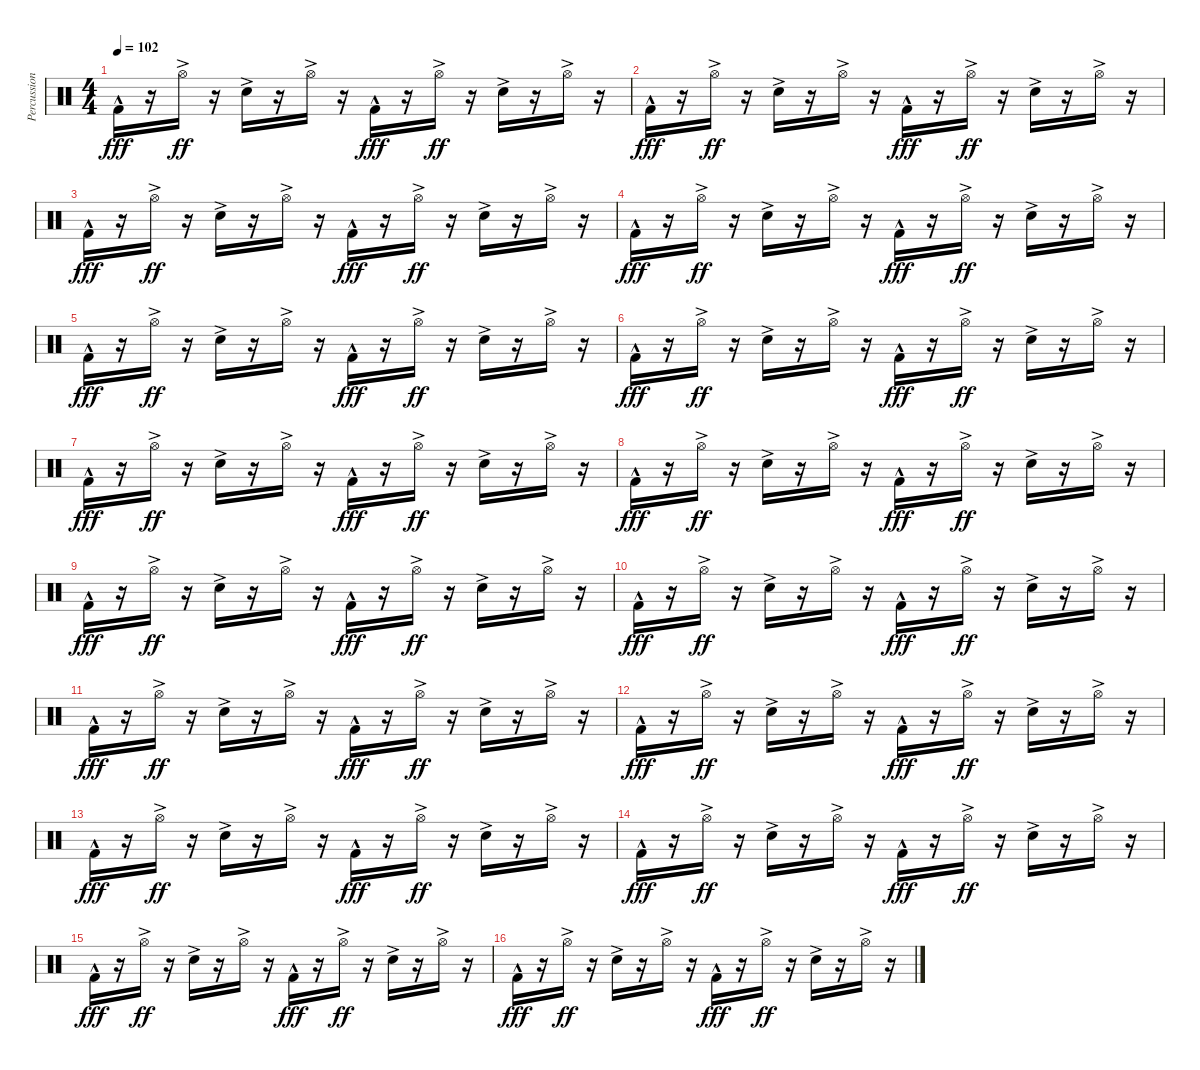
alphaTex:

\track ("Percussion" "Percussion") {instrument percussion}
\staff {score}
\articulation defaults
\ts (4 4)
\tempo 102
\clef neutral
\ks c "Kick (hit) 2"{hac}.16{dy fff}
r.16 "Hi-Hat (open)"{ac}.16{dy ff} r.16 "Snare (hit) 2"{ac}.16 r.16 "Hi-Hat (open)"{ac}.16 r.16 "Kick (hit) 2"{hac}.16{dy fff} r.16 "Hi-Hat (open)"{ac}.16{dy ff} r.16 "Snare (hit) 2"{ac}.16 r.16 "Hi-Hat (open)"{ac}.16 r.16 |
"Kick (hit) 2"{hac}.16{dy fff} r.16 "Hi-Hat (open)"{ac}.16{dy ff} r.16 "Snare (hit) 2"{ac}.16 r.16 "Hi-Hat (open)"{ac}.16 r.16 "Kick (hit) 2"{hac}.16{dy fff} r.16 "Hi-Hat (open)"{ac}.16{dy ff} r.16 "Snare (hit) 2"{ac}.16 r.16 "Hi-Hat (open)"{ac}.16 r.16 |
"Kick (hit) 2"{hac}.16{dy fff} r.16 "Hi-Hat (open)"{ac}.16{dy ff} r.16 "Snare (hit) 2"{ac}.16 r.16 "Hi-Hat (open)"{ac}.16 r.16 "Kick (hit) 2"{hac}.16{dy fff} r.16 "Hi-Hat (open)"{ac}.16{dy ff} r.16 "Snare (hit) 2"{ac}.16 r.16 "Hi-Hat (open)"{ac}.16 r.16 |
"Kick (hit) 2"{hac}.16{dy fff} r.16 "Hi-Hat (open)"{ac}.16{dy ff} r.16 "Snare (hit) 2"{ac}.16 r.16 "Hi-Hat (open)"{ac}.16 r.16 "Kick (hit) 2"{hac}.16{dy fff} r.16 "Hi-Hat (open)"{ac}.16{dy ff} r.16 "Snare (hit) 2"{ac}.16 r.16 "Hi-Hat (open)"{ac}.16 r.16 |
"Kick (hit) 2"{hac}.16{dy fff} r.16 "Hi-Hat (open)"{ac}.16{dy ff} r.16 "Snare (hit) 2"{ac}.16 r.16 "Hi-Hat (open)"{ac}.16 r.16 "Kick (hit) 2"{hac}.16{dy fff} r.16 "Hi-Hat (open)"{ac}.16{dy ff} r.16 "Snare (hit) 2"{ac}.16 r.16 "Hi-Hat (open)"{ac}.16 r.16 |
"Kick (hit) 2"{hac}.16{dy fff} r.16 "Hi-Hat (open)"{ac}.16{dy ff} r.16 "Snare (hit) 2"{ac}.16 r.16 "Hi-Hat (open)"{ac}.16 r.16 "Kick (hit) 2"{hac}.16{dy fff} r.16 "Hi-Hat (open)"{ac}.16{dy ff} r.16 "Snare (hit) 2"{ac}.16 r.16 "Hi-Hat (open)"{ac}.16 r.16 |
"Kick (hit) 2"{hac}.16{dy fff} r.16 "Hi-Hat (open)"{ac}.16{dy ff} r.16 "Snare (hit) 2"{ac}.16 r.16 "Hi-Hat (open)"{ac}.16 r.16 "Kick (hit) 2"{hac}.16{dy fff} r.16 "Hi-Hat (open)"{ac}.16{dy ff} r.16 "Snare (hit) 2"{ac}.16 r.16 "Hi-Hat (open)"{ac}.16 r.16 |
"Kick (hit) 2"{hac}.16{dy fff} r.16 "Hi-Hat (open)"{ac}.16{dy ff} r.16 "Snare (hit) 2"{ac}.16 r.16 "Hi-Hat (open)"{ac}.16 r.16 "Kick (hit) 2"{hac}.16{dy fff} r.16 "Hi-Hat (open)"{ac}.16{dy ff} r.16 "Snare (hit) 2"{ac}.16 r.16 "Hi-Hat (open)"{ac}.16 r.16 |
"Kick (hit) 2"{hac}.16{dy fff} r.16 "Hi-Hat (open)"{ac}.16{dy ff} r.16 "Snare (hit) 2"{ac}.16 r.16 "Hi-Hat (open)"{ac}.16 r.16 "Kick (hit) 2"{hac}.16{dy fff} r.16 "Hi-Hat (open)"{ac}.16{dy ff} r.16 "Snare (hit) 2"{ac}.16 r.16 "Hi-Hat (open)"{ac}.16 r.16 |
"Kick (hit) 2"{hac}.16{dy fff} r.16 "Hi-Hat (open)"{ac}.16{dy ff} r.16 "Snare (hit) 2"{ac}.16 r.16 "Hi-Hat (open)"{ac}.16 r.16 "Kick (hit) 2"{hac}.16{dy fff} r.16 "Hi-Hat (open)"{ac}.16{dy ff} r.16 "Snare (hit) 2"{ac}.16 r.16 "Hi-Hat (open)"{ac}.16 r.16 |
"Kick (hit) 2"{hac}.16{dy fff} r.16 "Hi-Hat (open)"{ac}.16{dy ff} r.16 "Snare (hit) 2"{ac}.16 r.16 "Hi-Hat (open)"{ac}.16 r.16 "Kick (hit) 2"{hac}.16{dy fff} r.16 "Hi-Hat (open)"{ac}.16{dy ff} r.16 "Snare (hit) 2"{ac}.16 r.16 "Hi-Hat (open)"{ac}.16 r.16 |
"Kick (hit) 2"{hac}.16{dy fff} r.16 "Hi-Hat (open)"{ac}.16{dy ff} r.16 "Snare (hit) 2"{ac}.16 r.16 "Hi-Hat (open)"{ac}.16 r.16 "Kick (hit) 2"{hac}.16{dy fff} r.16 "Hi-Hat (open)"{ac}.16{dy ff} r.16 "Snare (hit) 2"{ac}.16 r.16 "Hi-Hat (open)"{ac}.16 r.16 |
"Kick (hit) 2"{hac}.16{dy fff} r.16 "Hi-Hat (open)"{ac}.16{dy ff} r.16 "Snare (hit) 2"{ac}.16 r.16 "Hi-Hat (open)"{ac}.16 r.16 "Kick (hit) 2"{hac}.16{dy fff} r.16 "Hi-Hat (open)"{ac}.16{dy ff} r.16 "Snare (hit) 2"{ac}.16 r.16 "Hi-Hat (open)"{ac}.16 r.16 |
"Kick (hit) 2"{hac}.16{dy fff} r.16 "Hi-Hat (open)"{ac}.16{dy ff} r.16 "Snare (hit) 2"{ac}.16 r.16 "Hi-Hat (open)"{ac}.16 r.16 "Kick (hit) 2"{hac}.16{dy fff} r.16 "Hi-Hat (open)"{ac}.16{dy ff} r.16 "Snare (hit) 2"{ac}.16 r.16 "Hi-Hat (open)"{ac}.16 r.16 |
"Kick (hit) 2"{hac}.16{dy fff} r.16 "Hi-Hat (open)"{ac}.16{dy ff} r.16 "Snare (hit) 2"{ac}.16 r.16 "Hi-Hat (open)"{ac}.16 r.16 "Kick (hit) 2"{hac}.16{dy fff} r.16 "Hi-Hat (open)"{ac}.16{dy ff} r.16 "Snare (hit) 2"{ac}.16 r.16 "Hi-Hat (open)"{ac}.16 r.16 |
"Kick (hit) 2"{hac}.16{dy fff} r.16 "Hi-Hat (open)"{ac}.16{dy ff} r.16 "Snare (hit) 2"{ac}.16 r.16 "Hi-Hat (open)"{ac}.16 r.16 "Kick (hit) 2"{hac}.16{dy fff} r.16 "Hi-Hat (open)"{ac}.16{dy ff} r.16 "Snare (hit) 2"{ac}.16 r.16 "Hi-Hat (open)"{ac}.16 r.16
